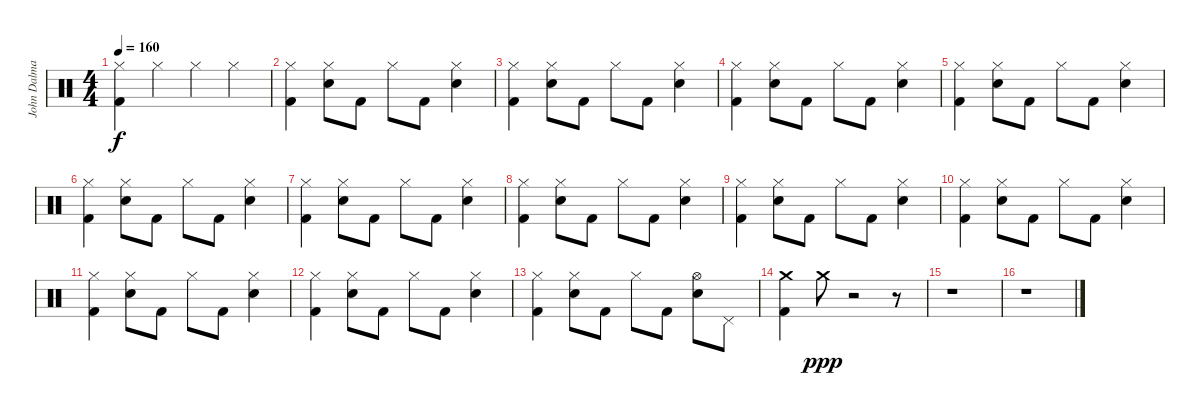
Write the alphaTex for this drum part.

\track ("John Dalmayian - Drums" "John Dalma") {instrument percussion}
\staff {score}
\articulation defaults
\ts (4 4)
\tempo 160
\clef neutral
\ks c
("Hi-Hat (closed)" "Kick (hit) 2").4{dy f} "Hi-Hat (closed)".4 "Hi-Hat (closed)".4 "Hi-Hat (closed)".4 |
("Hi-Hat (closed)" "Kick (hit) 2").4 ("Hi-Hat (closed)" "Snare (hit) 2").8 "Kick (hit) 2".8 "Hi-Hat (closed)".8 "Kick (hit) 2".8 ("Hi-Hat (closed)" "Snare (hit) 2").4 |
("Hi-Hat (closed)" "Kick (hit) 2").4 ("Hi-Hat (closed)" "Snare (hit) 2").8 "Kick (hit) 2".8 "Hi-Hat (closed)".8 "Kick (hit) 2".8 ("Hi-Hat (closed)" "Snare (hit) 2").4 |
("Hi-Hat (closed)" "Kick (hit) 2").4 ("Hi-Hat (closed)" "Snare (hit) 2").8 "Kick (hit) 2".8 "Hi-Hat (closed)".8 "Kick (hit) 2".8 ("Hi-Hat (closed)" "Snare (hit) 2").4 |
("Hi-Hat (closed)" "Kick (hit) 2").4 ("Hi-Hat (closed)" "Snare (hit) 2").8 "Kick (hit) 2".8 "Hi-Hat (closed)".8 "Kick (hit) 2".8 ("Hi-Hat (closed)" "Snare (hit) 2").4 |
("Hi-Hat (closed)" "Kick (hit) 2").4 ("Hi-Hat (closed)" "Snare (hit) 2").8 "Kick (hit) 2".8 "Hi-Hat (closed)".8 "Kick (hit) 2".8 ("Hi-Hat (closed)" "Snare (hit) 2").4 |
("Hi-Hat (closed)" "Kick (hit) 2").4 ("Hi-Hat (closed)" "Snare (hit) 2").8 "Kick (hit) 2".8 "Hi-Hat (closed)".8 "Kick (hit) 2".8 ("Hi-Hat (closed)" "Snare (hit) 2").4 |
("Hi-Hat (closed)" "Kick (hit) 2").4 ("Hi-Hat (closed)" "Snare (hit) 2").8 "Kick (hit) 2".8 "Hi-Hat (closed)".8 "Kick (hit) 2".8 ("Hi-Hat (closed)" "Snare (hit) 2").4 |
("Hi-Hat (closed)" "Kick (hit) 2").4 ("Hi-Hat (closed)" "Snare (hit) 2").8 "Kick (hit) 2".8 "Hi-Hat (closed)".8 "Kick (hit) 2".8 ("Hi-Hat (closed)" "Snare (hit) 2").4 |
("Hi-Hat (closed)" "Kick (hit) 2").4 ("Hi-Hat (closed)" "Snare (hit) 2").8 "Kick (hit) 2".8 "Hi-Hat (closed)".8 "Kick (hit) 2".8 ("Hi-Hat (closed)" "Snare (hit) 2").4 |
("Hi-Hat (closed)" "Kick (hit) 2").4 ("Hi-Hat (closed)" "Snare (hit) 2").8 "Kick (hit) 2".8 "Hi-Hat (closed)".8 "Kick (hit) 2".8 ("Hi-Hat (closed)" "Snare (hit) 2").4 |
("Hi-Hat (closed)" "Kick (hit) 2").4 ("Hi-Hat (closed)" "Snare (hit) 2").8 "Kick (hit) 2".8 "Hi-Hat (closed)".8 "Kick (hit) 2".8 ("Hi-Hat (closed)" "Snare (hit) 2").4 |
("Hi-Hat (closed)" "Kick (hit) 2").4 ("Hi-Hat (closed)" "Snare (hit) 2").8 "Kick (hit) 2".8 "Hi-Hat (closed)".8 "Kick (hit) 2".8 ("Hi-Hat (open)" "Snare (hit) 2").8 "Pedal Hi-Hat (hit)".8 |
("Crash medium (hit)" "Kick (hit) 2").4 "Crash medium (hit)".8{dy ppp} r.2 r.8 |
r.1 |
r.1
